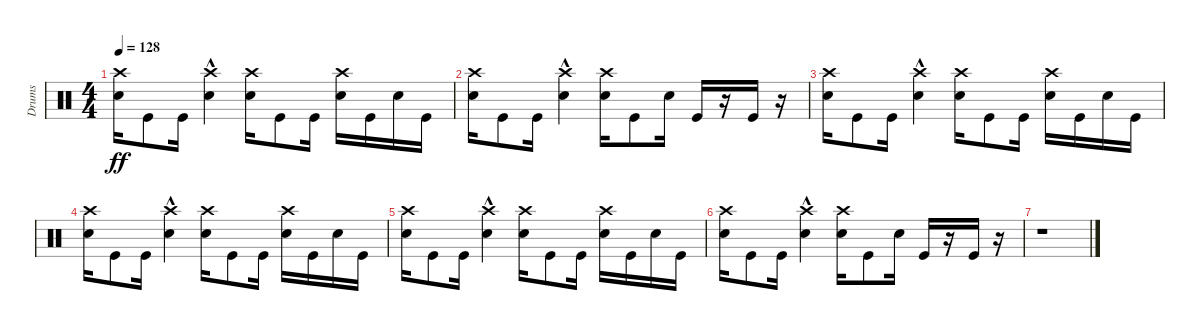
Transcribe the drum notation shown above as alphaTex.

\track ("Drums" "Drums") {instrument percussion}
\staff {score}
\articulation defaults
\ts (4 4)
\tempo 128
\clef neutral
\ks c
("Snare (hit) 2" "Crash high (hit)").16{dy ff} "Kick (hit)".8 "Kick (hit)".16 ("Snare (hit) 2"{hac} "Crash high (hit)"{hac}).4 ("Snare (hit) 2" "Crash high (hit)").16 "Kick (hit)".8 "Kick (hit)".16 ("Snare (hit) 2" "Crash high (hit)").16 "Kick (hit)".16 "Snare (hit) 2".16 "Kick (hit)".16 |
("Snare (hit) 2" "Crash high (hit)").16 "Kick (hit)".8 "Kick (hit)".16 ("Snare (hit) 2"{hac} "Crash high (hit)"{hac}).4 ("Snare (hit) 2" "Crash high (hit)").16 "Kick (hit)".8 "Snare (hit) 2".16 "Kick (hit)".16 r.16 "Kick (hit)".16 r.16 |
("Snare (hit) 2" "Crash high (hit)").16 "Kick (hit)".8 "Kick (hit)".16 ("Snare (hit) 2"{hac} "Crash high (hit)"{hac}).4 ("Snare (hit) 2" "Crash high (hit)").16 "Kick (hit)".8 "Kick (hit)".16 ("Snare (hit) 2" "Crash high (hit)").16 "Kick (hit)".16 "Snare (hit) 2".16 "Kick (hit)".16 |
("Snare (hit) 2" "Crash high (hit)").16 "Kick (hit)".8 "Kick (hit)".16 ("Snare (hit) 2"{hac} "Crash high (hit)"{hac}).4 ("Snare (hit) 2" "Crash high (hit)").16 "Kick (hit)".8 "Kick (hit)".16 ("Snare (hit) 2" "Crash high (hit)").16 "Kick (hit)".16 "Snare (hit) 2".16 "Kick (hit)".16 |
("Snare (hit) 2" "Crash high (hit)").16 "Kick (hit)".8 "Kick (hit)".16 ("Snare (hit) 2"{hac} "Crash high (hit)"{hac}).4 ("Snare (hit) 2" "Crash high (hit)").16 "Kick (hit)".8 "Kick (hit)".16 ("Snare (hit) 2" "Crash high (hit)").16 "Kick (hit)".16 "Snare (hit) 2".16 "Kick (hit)".16 |
("Snare (hit) 2" "Crash high (hit)").16 "Kick (hit)".8 "Kick (hit)".16 ("Snare (hit) 2"{hac} "Crash high (hit)"{hac}).4 ("Snare (hit) 2" "Crash high (hit)").16 "Kick (hit)".8 "Snare (hit) 2".16 "Kick (hit)".16 r.16 "Kick (hit)".16 r.16 |
r.1
